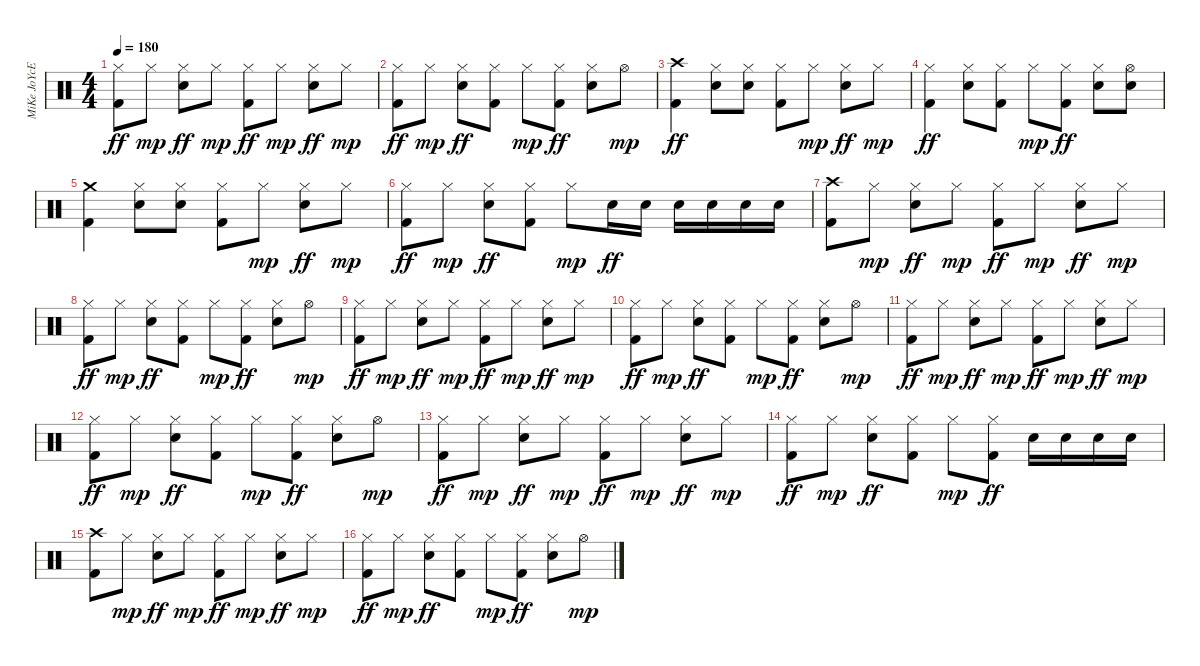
\track ("MiKe JoYcE" "MiKe JoYcE") {instrument percussion}
\staff {score}
\articulation defaults
\ts (4 4)
\tempo 180
\clef neutral
\ks c
("Hi-Hat (closed)" "Kick (hit) 2").8{dy ff} "Hi-Hat (closed)".8{dy mp} ("Hi-Hat (closed)" "Electric Snare (hit)").8{dy ff} "Hi-Hat (closed)".8{dy mp} ("Hi-Hat (closed)" "Kick (hit) 2").8{dy ff} "Hi-Hat (closed)".8{dy mp} ("Hi-Hat (closed)" "Electric Snare (hit)").8{dy ff} "Hi-Hat (closed)".8{dy mp} |
("Hi-Hat (closed)" "Kick (hit) 2").8{dy ff} "Hi-Hat (closed)".8{dy mp} ("Hi-Hat (closed)" "Electric Snare (hit)").8{dy ff} ("Hi-Hat (closed)" "Kick (hit) 2").8 "Hi-Hat (closed)".8{dy mp} ("Hi-Hat (closed)" "Kick (hit) 2").8{dy ff} ("Hi-Hat (closed)" "Electric Snare (hit)").8 "Hi-Hat (open)".8{dy mp} |
("Crash high (hit)" "Kick (hit) 2").4{dy ff} ("Hi-Hat (closed)" "Electric Snare (hit)").8 ("Hi-Hat (closed)" "Electric Snare (hit)").8 ("Hi-Hat (closed)" "Kick (hit) 2").8 "Hi-Hat (closed)".8{dy mp} ("Hi-Hat (closed)" "Electric Snare (hit)").8{dy ff} "Hi-Hat (closed)".8{dy mp} |
("Hi-Hat (closed)" "Kick (hit) 2").4{dy ff} ("Hi-Hat (closed)" "Electric Snare (hit)").8 ("Hi-Hat (closed)" "Kick (hit) 2").8 "Hi-Hat (closed)".8{dy mp} ("Hi-Hat (closed)" "Kick (hit) 2").8{dy ff} ("Hi-Hat (closed)" "Electric Snare (hit)").8 ("Hi-Hat (open)" "Electric Snare (hit)").8 |
("Crash medium (hit)" "Kick (hit) 2").4 ("Hi-Hat (closed)" "Electric Snare (hit)").8 ("Hi-Hat (closed)" "Electric Snare (hit)").8 ("Hi-Hat (closed)" "Kick (hit) 2").8 "Hi-Hat (closed)".8{dy mp} ("Hi-Hat (closed)" "Electric Snare (hit)").8{dy ff} "Hi-Hat (closed)".8{dy mp} |
("Hi-Hat (closed)" "Kick (hit) 2").8{dy ff} "Hi-Hat (closed)".8{dy mp} ("Hi-Hat (closed)" "Electric Snare (hit)").8{dy ff} ("Hi-Hat (closed)" "Kick (hit) 2").8 "Hi-Hat (closed)".8{dy mp} "Electric Snare (hit)".16{dy ff} "Electric Snare (hit)".16 "Electric Snare (hit)".16 "Electric Snare (hit)".16 "Electric Snare (hit)".16 "Electric Snare (hit)".16 |
("Crash high (hit)" "Kick (hit) 2").8 "Hi-Hat (closed)".8{dy mp} ("Hi-Hat (closed)" "Electric Snare (hit)").8{dy ff} "Hi-Hat (closed)".8{dy mp} ("Hi-Hat (closed)" "Kick (hit) 2").8{dy ff} "Hi-Hat (closed)".8{dy mp} ("Hi-Hat (closed)" "Electric Snare (hit)").8{dy ff} "Hi-Hat (closed)".8{dy mp} |
("Hi-Hat (closed)" "Kick (hit) 2").8{dy ff} "Hi-Hat (closed)".8{dy mp} ("Hi-Hat (closed)" "Electric Snare (hit)").8{dy ff} ("Hi-Hat (closed)" "Kick (hit) 2").8 "Hi-Hat (closed)".8{dy mp} ("Hi-Hat (closed)" "Kick (hit) 2").8{dy ff} ("Hi-Hat (closed)" "Electric Snare (hit)").8 "Hi-Hat (open)".8{dy mp} |
("Hi-Hat (closed)" "Kick (hit) 2").8{dy ff} "Hi-Hat (closed)".8{dy mp} ("Hi-Hat (closed)" "Electric Snare (hit)").8{dy ff} "Hi-Hat (closed)".8{dy mp} ("Hi-Hat (closed)" "Kick (hit) 2").8{dy ff} "Hi-Hat (closed)".8{dy mp} ("Hi-Hat (closed)" "Electric Snare (hit)").8{dy ff} "Hi-Hat (closed)".8{dy mp} |
("Hi-Hat (closed)" "Kick (hit) 2").8{dy ff} "Hi-Hat (closed)".8{dy mp} ("Hi-Hat (closed)" "Electric Snare (hit)").8{dy ff} ("Hi-Hat (closed)" "Kick (hit) 2").8 "Hi-Hat (closed)".8{dy mp} ("Hi-Hat (closed)" "Kick (hit) 2").8{dy ff} ("Hi-Hat (closed)" "Electric Snare (hit)").8 "Hi-Hat (open)".8{dy mp} |
("Hi-Hat (closed)" "Kick (hit) 2").8{dy ff} "Hi-Hat (closed)".8{dy mp} ("Hi-Hat (closed)" "Electric Snare (hit)").8{dy ff} "Hi-Hat (closed)".8{dy mp} ("Hi-Hat (closed)" "Kick (hit) 2").8{dy ff} "Hi-Hat (closed)".8{dy mp} ("Hi-Hat (closed)" "Electric Snare (hit)").8{dy ff} "Hi-Hat (closed)".8{dy mp} |
("Hi-Hat (closed)" "Kick (hit) 2").8{dy ff} "Hi-Hat (closed)".8{dy mp} ("Hi-Hat (closed)" "Electric Snare (hit)").8{dy ff} ("Hi-Hat (closed)" "Kick (hit) 2").8 "Hi-Hat (closed)".8{dy mp} ("Hi-Hat (closed)" "Kick (hit) 2").8{dy ff} ("Hi-Hat (closed)" "Electric Snare (hit)").8 "Hi-Hat (open)".8{dy mp} |
("Hi-Hat (closed)" "Kick (hit) 2").8{dy ff} "Hi-Hat (closed)".8{dy mp} ("Hi-Hat (closed)" "Electric Snare (hit)").8{dy ff} "Hi-Hat (closed)".8{dy mp} ("Hi-Hat (closed)" "Kick (hit) 2").8{dy ff} "Hi-Hat (closed)".8{dy mp} ("Hi-Hat (closed)" "Electric Snare (hit)").8{dy ff} "Hi-Hat (closed)".8{dy mp} |
("Hi-Hat (closed)" "Kick (hit) 2").8{dy ff} "Hi-Hat (closed)".8{dy mp} ("Hi-Hat (closed)" "Electric Snare (hit)").8{dy ff} ("Hi-Hat (closed)" "Kick (hit) 2").8 "Hi-Hat (closed)".8{dy mp} ("Hi-Hat (closed)" "Kick (hit) 2").8{dy ff} "Electric Snare (hit)".16 "Electric Snare (hit)".16 "Electric Snare (hit)".16 "Electric Snare (hit)".16 |
("Crash high (hit)" "Kick (hit) 2").8 "Hi-Hat (closed)".8{dy mp} ("Hi-Hat (closed)" "Electric Snare (hit)").8{dy ff} "Hi-Hat (closed)".8{dy mp} ("Hi-Hat (closed)" "Kick (hit) 2").8{dy ff} "Hi-Hat (closed)".8{dy mp} ("Hi-Hat (closed)" "Electric Snare (hit)").8{dy ff} "Hi-Hat (closed)".8{dy mp} |
("Hi-Hat (closed)" "Kick (hit) 2").8{dy ff} "Hi-Hat (closed)".8{dy mp} ("Hi-Hat (closed)" "Electric Snare (hit)").8{dy ff} ("Hi-Hat (closed)" "Kick (hit) 2").8 "Hi-Hat (closed)".8{dy mp} ("Hi-Hat (closed)" "Kick (hit) 2").8{dy ff} ("Hi-Hat (closed)" "Electric Snare (hit)").8 "Hi-Hat (open)".8{dy mp}
